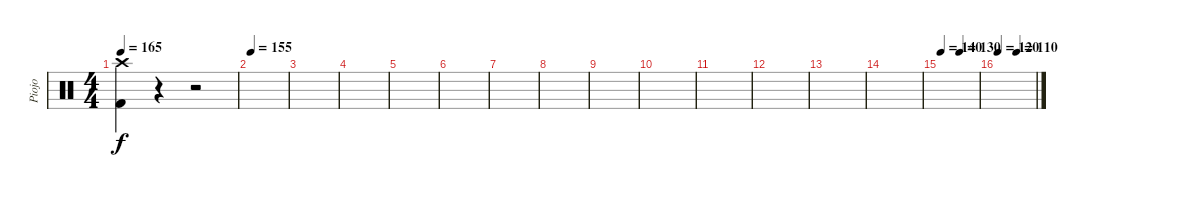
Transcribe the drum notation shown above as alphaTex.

\track ("Piojo" "Piojo") {instrument percussion}
\staff {score}
\articulation defaults
\ts (4 4)
\tempo 165
\clef neutral
\ks c
("Crash high (hit)" "Kick (hit) 2").4{dy f} r.4 r.2 |
\tempo 155
|
|
|
|
|
|
|
|
|
|
|
|
|
\tempo 140
\tempo (130 0.5)
|
\tempo 120
\tempo (110 0.5)
